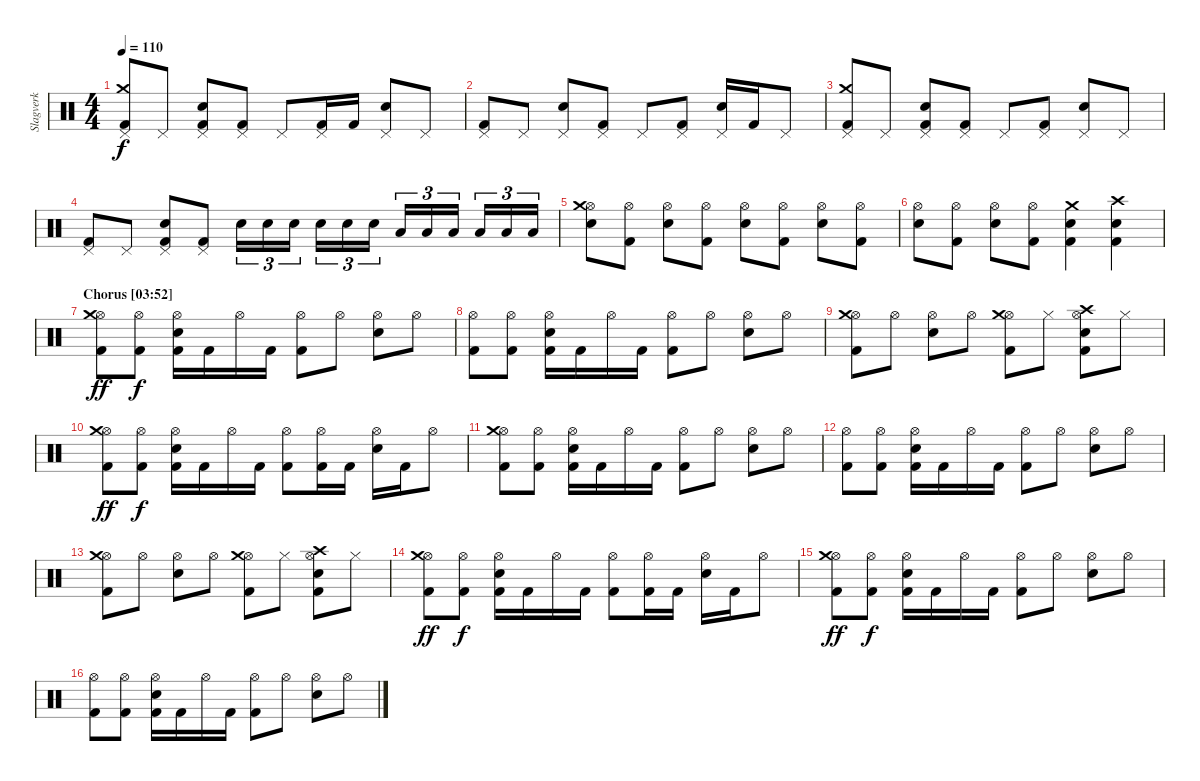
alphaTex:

\track ("Slagverk" "Slagverk") {instrument percussion}
\staff {score}
\articulation defaults
\ts (4 4)
\tempo 110
\clef neutral
\ks c
("Pedal Hi-Hat (hit)" "Crash medium (hit)" "Kick (hit) 2").8{dy f} "Pedal Hi-Hat (hit)".8 ("Pedal Hi-Hat (hit)" "Electric Snare (hit)" "Kick (hit) 2").8 ("Pedal Hi-Hat (hit)" "Kick (hit) 2").8 "Pedal Hi-Hat (hit)".8 ("Pedal Hi-Hat (hit)" "Kick (hit) 2").16 "Kick (hit) 2".16 ("Pedal Hi-Hat (hit)" "Electric Snare (hit)").8 "Pedal Hi-Hat (hit)".8 |
("Pedal Hi-Hat (hit)" "Kick (hit) 2").8 "Pedal Hi-Hat (hit)".8 ("Pedal Hi-Hat (hit)" "Electric Snare (hit)").8 ("Pedal Hi-Hat (hit)" "Kick (hit) 2").8 "Pedal Hi-Hat (hit)".8 ("Pedal Hi-Hat (hit)" "Kick (hit) 2").8 ("Pedal Hi-Hat (hit)" "Electric Snare (hit)").16 "Kick (hit) 2".16 "Pedal Hi-Hat (hit)".8 |
("Pedal Hi-Hat (hit)" "Crash medium (hit)" "Kick (hit) 2").8 "Pedal Hi-Hat (hit)".8 ("Pedal Hi-Hat (hit)" "Electric Snare (hit)" "Kick (hit) 2").8 ("Pedal Hi-Hat (hit)" "Kick (hit) 2").8 "Pedal Hi-Hat (hit)".8 ("Pedal Hi-Hat (hit)" "Kick (hit) 2").8 ("Pedal Hi-Hat (hit)" "Electric Snare (hit)").8 "Pedal Hi-Hat (hit)".8 |
("Pedal Hi-Hat (hit)" "Kick (hit) 2").8 "Pedal Hi-Hat (hit)".8 ("Pedal Hi-Hat (hit)" "Electric Snare (hit)" "Kick (hit) 2").8 ("Pedal Hi-Hat (hit)" "Kick (hit) 2").8 "Electric Snare (hit)".16{tu (3 2)} "Electric Snare (hit)".16{tu (3 2)} "Electric Snare (hit)".16{tu (3 2)} "Electric Snare (hit)".16{tu (3 2)} "Electric Snare (hit)".16{tu (3 2)} "Electric Snare (hit)".16{tu (3 2)} "Low Tom (hit)".16{tu (3 2)} "Low Tom (hit)".16{tu (3 2)} "Low Tom (hit)".16{tu (3 2)} "Low Tom (hit)".16{tu (3 2)} "Low Tom (hit)".16{tu (3 2)} "Low Tom (hit)".16{tu (3 2)} |
\section ("" "")
("Hi-Hat (open)" "Crash medium (hit)" "Electric Snare (hit)").8 ("Hi-Hat (open)" "Kick (hit) 2").8 ("Hi-Hat (open)" "Electric Snare (hit)").8 ("Hi-Hat (open)" "Kick (hit) 2").8 ("Hi-Hat (open)" "Electric Snare (hit)").8 ("Hi-Hat (open)" "Kick (hit) 2").8 ("Hi-Hat (open)" "Electric Snare (hit)").8 ("Hi-Hat (open)" "Kick (hit) 2").8 |
("Hi-Hat (open)" "Electric Snare (hit)").8 ("Hi-Hat (open)" "Kick (hit) 2").8 ("Hi-Hat (open)" "Electric Snare (hit)").8 ("Hi-Hat (open)" "Kick (hit) 2").8 ("Crash medium (hit)" "Electric Snare (hit)" "Kick (hit) 2").4 ("Crash high (hit)" "Electric Snare (hit)" "Kick (hit) 2").4 |
\section ("" "Chorus [03:52]")
("Hi-Hat (open)" "Crash medium (hit)" "Kick (hit) 2").8{dy ff} ("Hi-Hat (open)" "Kick (hit) 2").8{dy f} ("Hi-Hat (open)" "Electric Snare (hit)" "Kick (hit) 2").16 "Kick (hit) 2".16 "Hi-Hat (open)".16 "Kick (hit) 2".16 ("Hi-Hat (open)" "Kick (hit) 2").8 "Hi-Hat (open)".8 ("Hi-Hat (open)" "Electric Snare (hit)").8 "Hi-Hat (open)".8 |
("Hi-Hat (open)" "Kick (hit) 2").8 ("Hi-Hat (open)" "Kick (hit) 2").8 ("Hi-Hat (open)" "Electric Snare (hit)" "Kick (hit) 2").16 "Kick (hit) 2".16 "Hi-Hat (open)".16 "Kick (hit) 2".16 ("Hi-Hat (open)" "Kick (hit) 2").8 "Hi-Hat (open)".8 ("Hi-Hat (open)" "Electric Snare (hit)").8 "Hi-Hat (open)".8 |
("Hi-Hat (open)" "Crash medium (hit)" "Kick (hit) 2").8 "Hi-Hat (open)".8 ("Hi-Hat (open)" "Electric Snare (hit)").8 "Hi-Hat (open)".8 ("Hi-Hat (open)" "Crash medium (hit)" "Kick (hit) 2").8 "Hi-Hat (closed)".8 ("Hi-Hat (open)" "Crash high (hit)" "Electric Snare (hit)" "Kick (hit) 2").8 "Hi-Hat (closed)".8 |
("Hi-Hat (open)" "Crash medium (hit)" "Kick (hit) 2").8{dy ff} ("Hi-Hat (open)" "Kick (hit) 2").8{dy f} ("Hi-Hat (open)" "Electric Snare (hit)" "Kick (hit) 2").16 "Kick (hit) 2".16 "Hi-Hat (open)".16 "Kick (hit) 2".16 ("Hi-Hat (open)" "Kick (hit) 2").8 ("Hi-Hat (open)" "Kick (hit) 2").16 "Kick (hit) 2".16 ("Hi-Hat (open)" "Electric Snare (hit)").16 "Kick (hit) 2".16 "Hi-Hat (open)".8 |
("Hi-Hat (open)" "Crash medium (hit)" "Kick (hit) 2").8 ("Hi-Hat (open)" "Kick (hit) 2").8 ("Hi-Hat (open)" "Electric Snare (hit)" "Kick (hit) 2").16 "Kick (hit) 2".16 "Hi-Hat (open)".16 "Kick (hit) 2".16 ("Hi-Hat (open)" "Kick (hit) 2").8 "Hi-Hat (open)".8 ("Hi-Hat (open)" "Electric Snare (hit)").8 "Hi-Hat (open)".8 |
("Hi-Hat (open)" "Kick (hit) 2").8 ("Hi-Hat (open)" "Kick (hit) 2").8 ("Hi-Hat (open)" "Electric Snare (hit)" "Kick (hit) 2").16 "Kick (hit) 2".16 "Hi-Hat (open)".16 "Kick (hit) 2".16 ("Hi-Hat (open)" "Kick (hit) 2").8 "Hi-Hat (open)".8 ("Hi-Hat (open)" "Electric Snare (hit)").8 "Hi-Hat (open)".8 |
("Hi-Hat (open)" "Crash medium (hit)" "Kick (hit) 2").8 "Hi-Hat (open)".8 ("Hi-Hat (open)" "Electric Snare (hit)").8 "Hi-Hat (open)".8 ("Hi-Hat (open)" "Crash medium (hit)" "Kick (hit) 2").8 "Hi-Hat (closed)".8 ("Hi-Hat (open)" "Crash high (hit)" "Electric Snare (hit)" "Kick (hit) 2").8 "Hi-Hat (closed)".8 |
("Hi-Hat (open)" "Crash medium (hit)" "Kick (hit) 2").8{dy ff} ("Hi-Hat (open)" "Kick (hit) 2").8{dy f} ("Hi-Hat (open)" "Electric Snare (hit)" "Kick (hit) 2").16 "Kick (hit) 2".16 "Hi-Hat (open)".16 "Kick (hit) 2".16 ("Hi-Hat (open)" "Kick (hit) 2").8 ("Hi-Hat (open)" "Kick (hit) 2").16 "Kick (hit) 2".16 ("Hi-Hat (open)" "Electric Snare (hit)").16 "Kick (hit) 2".16 "Hi-Hat (open)".8 |
\section ("" "")
("Hi-Hat (open)" "Crash medium (hit)" "Kick (hit) 2").8{dy ff} ("Hi-Hat (open)" "Kick (hit) 2").8{dy f} ("Hi-Hat (open)" "Electric Snare (hit)" "Kick (hit) 2").16 "Kick (hit) 2".16 "Hi-Hat (open)".16 "Kick (hit) 2".16 ("Hi-Hat (open)" "Kick (hit) 2").8 "Hi-Hat (open)".8 ("Hi-Hat (open)" "Electric Snare (hit)").8 "Hi-Hat (open)".8 |
("Hi-Hat (open)" "Kick (hit) 2").8 ("Hi-Hat (open)" "Kick (hit) 2").8 ("Hi-Hat (open)" "Electric Snare (hit)" "Kick (hit) 2").16 "Kick (hit) 2".16 "Hi-Hat (open)".16 "Kick (hit) 2".16 ("Hi-Hat (open)" "Kick (hit) 2").8 "Hi-Hat (open)".8 ("Hi-Hat (open)" "Electric Snare (hit)").8 "Hi-Hat (open)".8
